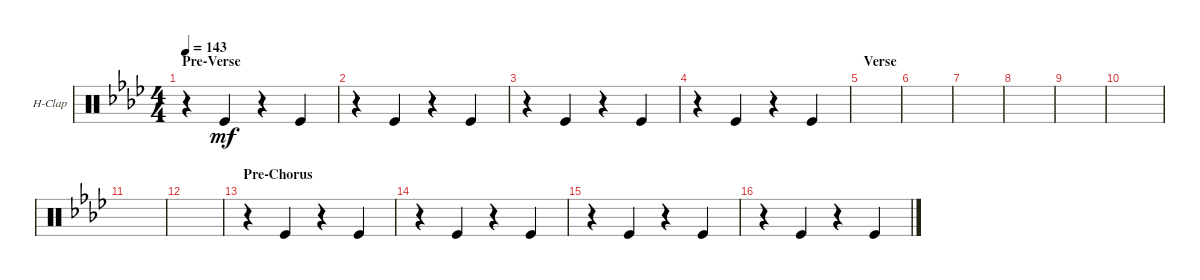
\defaultSystemsLayout 4
\bracketExtendMode groupsimilarinstruments
\firstSystemTrackNameOrientation horizontal
\otherSystemsTrackNameOrientation horizontal
\track ("Hand Clap" "H-Clap") {instrument percussion}
\staff {score}
\articulation defaults
\ts (4 4)
\section ("" "Pre-Verse")
\tempo 143
\clef neutral
\ks fminor
r.4{dy mf} "Kick (hit)".4 r.4 "Kick (hit)".4 |
r.4 "Kick (hit)".4 r.4 "Kick (hit)".4 |
r.4 "Kick (hit)".4 r.4 "Kick (hit)".4 |
r.4 "Kick (hit)".4 r.4 "Kick (hit)".4 |
\section ("" "Verse")
|
|
|
|
|
|
|
|
\section ("" "Pre-Chorus")
r.4 "Kick (hit)".4 r.4 "Kick (hit)".4 |
r.4 "Kick (hit)".4 r.4 "Kick (hit)".4 |
r.4 "Kick (hit)".4 r.4 "Kick (hit)".4 |
r.4 "Kick (hit)".4 r.4 "Kick (hit)".4
